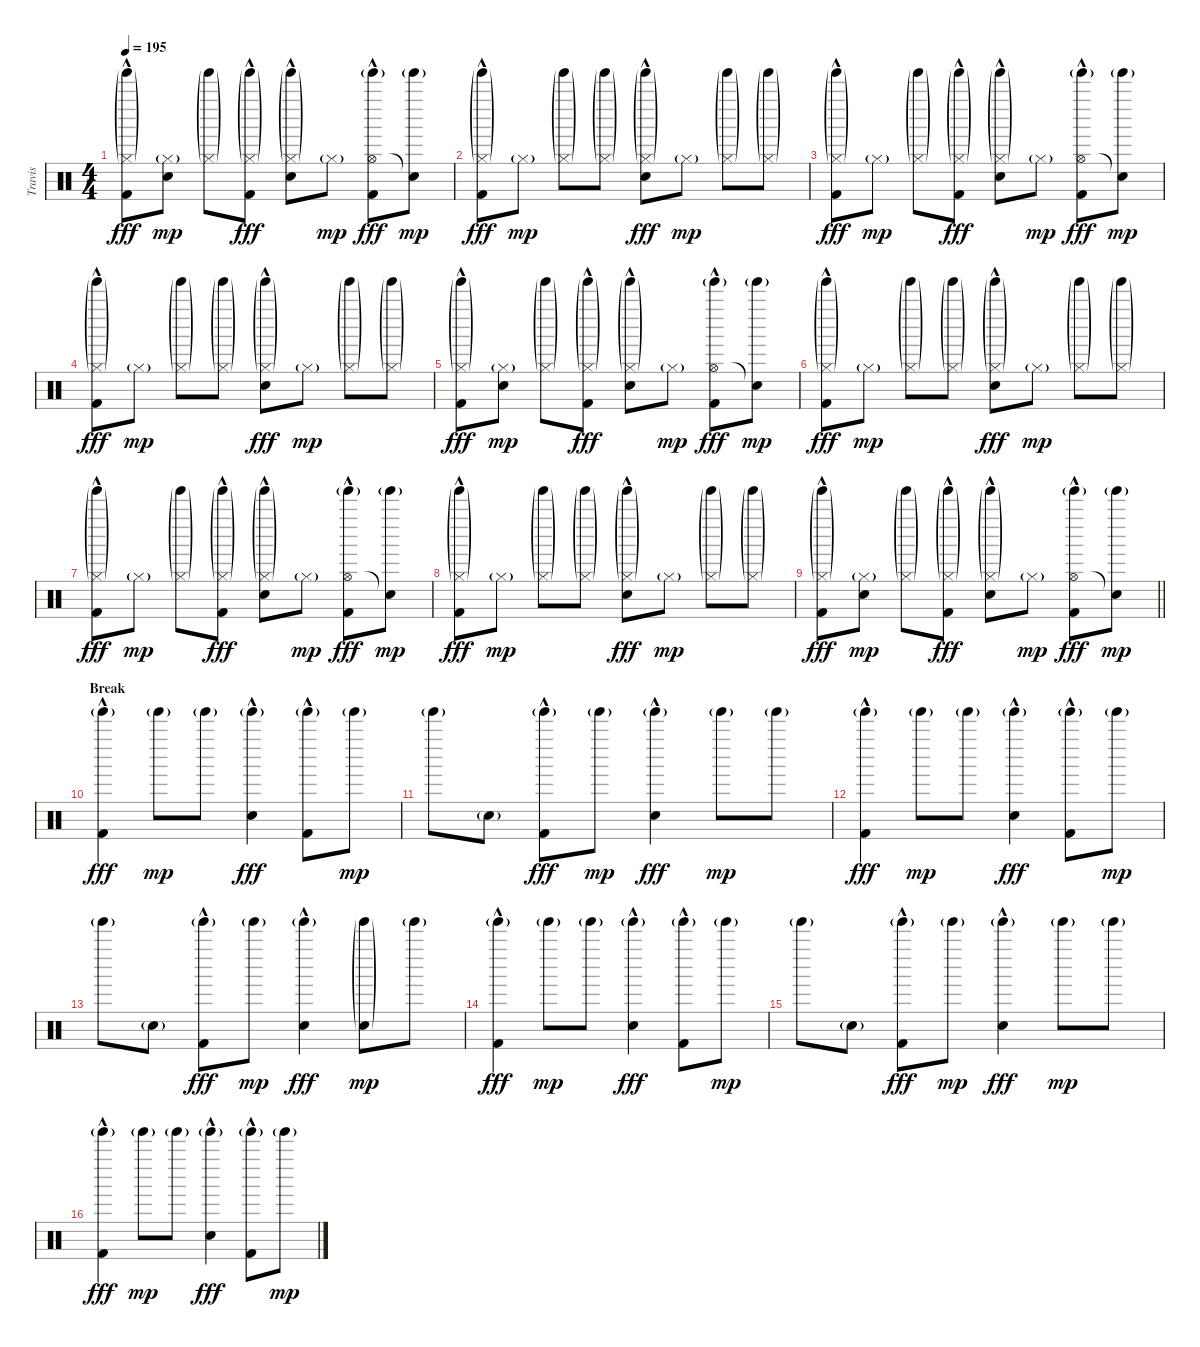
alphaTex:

\track ("Travis" "Travis") {instrument percussion}
\staff {score}
\articulation defaults
\ts (4 4)
\tempo 195
\clef neutral
\ks c
("Tinkle Bell (hit)"{g} "Hi-Hat (closed)"{g} "Kick (hit) 2"{hac}).8{dy fff} ("Hi-Hat (closed)"{g} "Electric Snare (hit)").8{dy mp} ("Tinkle Bell (hit)"{g} "Hi-Hat (closed)"{g}).8 ("Tinkle Bell (hit)"{g} "Hi-Hat (closed)"{g} "Kick (hit) 2"{hac}).8{dy fff} ("Tinkle Bell (hit)"{g} "Hi-Hat (closed)"{g} "Electric Snare (hit)"{hac}).8 "Hi-Hat (closed)"{g}.8{dy mp} ("Tinkle Bell (hit)"{g} "Hi-Hat (open)" "Kick (hit) 2"{hac}).8{dy fff} ("Tinkle Bell (hit)"{g} "Snare (hit)"{t}).8{dy mp} |
("Tinkle Bell (hit)"{g} "Hi-Hat (closed)"{g} "Kick (hit) 2"{hac}).8{dy fff} "Hi-Hat (closed)"{g}.8{dy mp} ("Tinkle Bell (hit)"{g} "Hi-Hat (closed)"{g}).8 ("Tinkle Bell (hit)"{g} "Hi-Hat (closed)"{g}).8 ("Tinkle Bell (hit)"{g} "Hi-Hat (closed)"{g} "Electric Snare (hit)"{hac}).8{dy fff} "Hi-Hat (closed)"{g}.8{dy mp} ("Tinkle Bell (hit)"{g} "Hi-Hat (closed)"{g}).8 ("Tinkle Bell (hit)"{g} "Hi-Hat (closed)"{g}).8 |
("Tinkle Bell (hit)"{g} "Hi-Hat (closed)"{g} "Kick (hit) 2"{hac}).8{dy fff} "Hi-Hat (closed)"{g}.8{dy mp} ("Tinkle Bell (hit)"{g} "Hi-Hat (closed)"{g}).8 ("Tinkle Bell (hit)"{g} "Hi-Hat (closed)"{g} "Kick (hit) 2"{hac}).8{dy fff} ("Tinkle Bell (hit)"{g} "Hi-Hat (closed)"{g} "Electric Snare (hit)"{hac}).8 "Hi-Hat (closed)"{g}.8{dy mp} ("Tinkle Bell (hit)"{g} "Hi-Hat (open)" "Kick (hit) 2"{hac}).8{dy fff} ("Tinkle Bell (hit)"{g} "Snare (hit)"{t}).8{dy mp} |
("Tinkle Bell (hit)"{g} "Hi-Hat (closed)"{g} "Kick (hit) 2"{hac}).8{dy fff} "Hi-Hat (closed)"{g}.8{dy mp} ("Tinkle Bell (hit)"{g} "Hi-Hat (closed)"{g}).8 ("Tinkle Bell (hit)"{g} "Hi-Hat (closed)"{g}).8 ("Tinkle Bell (hit)"{g} "Hi-Hat (closed)"{g} "Electric Snare (hit)"{hac}).8{dy fff} "Hi-Hat (closed)"{g}.8{dy mp} ("Tinkle Bell (hit)"{g} "Hi-Hat (closed)"{g}).8 ("Tinkle Bell (hit)"{g} "Hi-Hat (closed)"{g}).8 |
("Tinkle Bell (hit)"{g} "Hi-Hat (closed)"{g} "Kick (hit) 2"{hac}).8{dy fff} ("Hi-Hat (closed)"{g} "Electric Snare (hit)").8{dy mp} ("Tinkle Bell (hit)"{g} "Hi-Hat (closed)"{g}).8 ("Tinkle Bell (hit)"{g} "Hi-Hat (closed)"{g} "Kick (hit) 2"{hac}).8{dy fff} ("Tinkle Bell (hit)"{g} "Hi-Hat (closed)"{g} "Electric Snare (hit)"{hac}).8 "Hi-Hat (closed)"{g}.8{dy mp} ("Tinkle Bell (hit)"{g} "Hi-Hat (open)" "Kick (hit) 2"{hac}).8{dy fff} ("Tinkle Bell (hit)"{g} "Snare (hit)"{t}).8{dy mp} |
("Tinkle Bell (hit)"{g} "Hi-Hat (closed)"{g} "Kick (hit) 2"{hac}).8{dy fff} "Hi-Hat (closed)"{g}.8{dy mp} ("Tinkle Bell (hit)"{g} "Hi-Hat (closed)"{g}).8 ("Tinkle Bell (hit)"{g} "Hi-Hat (closed)"{g}).8 ("Tinkle Bell (hit)"{g} "Hi-Hat (closed)"{g} "Electric Snare (hit)"{hac}).8{dy fff} "Hi-Hat (closed)"{g}.8{dy mp} ("Tinkle Bell (hit)"{g} "Hi-Hat (closed)"{g}).8 ("Tinkle Bell (hit)"{g} "Hi-Hat (closed)"{g}).8 |
("Tinkle Bell (hit)"{g} "Hi-Hat (closed)"{g} "Kick (hit) 2"{hac}).8{dy fff} "Hi-Hat (closed)"{g}.8{dy mp} ("Tinkle Bell (hit)"{g} "Hi-Hat (closed)"{g}).8 ("Tinkle Bell (hit)"{g} "Hi-Hat (closed)"{g} "Kick (hit) 2"{hac}).8{dy fff} ("Tinkle Bell (hit)"{g} "Hi-Hat (closed)"{g} "Electric Snare (hit)"{hac}).8 "Hi-Hat (closed)"{g}.8{dy mp} ("Tinkle Bell (hit)"{g} "Hi-Hat (open)" "Kick (hit) 2"{hac}).8{dy fff} ("Tinkle Bell (hit)"{g} "Snare (hit)"{t}).8{dy mp} |
("Tinkle Bell (hit)"{g} "Hi-Hat (closed)"{g} "Kick (hit) 2"{hac}).8{dy fff} "Hi-Hat (closed)"{g}.8{dy mp} ("Tinkle Bell (hit)"{g} "Hi-Hat (closed)"{g}).8 ("Tinkle Bell (hit)"{g} "Hi-Hat (closed)"{g}).8 ("Tinkle Bell (hit)"{g} "Hi-Hat (closed)"{g} "Electric Snare (hit)"{hac}).8{dy fff} "Hi-Hat (closed)"{g}.8{dy mp} ("Tinkle Bell (hit)"{g} "Hi-Hat (closed)"{g}).8 ("Tinkle Bell (hit)"{g} "Hi-Hat (closed)"{g}).8 |
\barLineRight lightlight
("Tinkle Bell (hit)"{g} "Hi-Hat (closed)"{g} "Kick (hit) 2"{hac}).8{dy fff} ("Hi-Hat (closed)"{g} "Electric Snare (hit)").8{dy mp} ("Tinkle Bell (hit)"{g} "Hi-Hat (closed)"{g}).8 ("Tinkle Bell (hit)"{g} "Hi-Hat (closed)"{g} "Kick (hit) 2"{hac}).8{dy fff} ("Tinkle Bell (hit)"{g} "Hi-Hat (closed)"{g} "Electric Snare (hit)"{hac}).8 "Hi-Hat (closed)"{g}.8{dy mp} ("Tinkle Bell (hit)"{g} "Hi-Hat (open)" "Kick (hit) 2"{hac}).8{dy fff} ("Tinkle Bell (hit)"{g} "Snare (hit)"{t}).8{dy mp} |
\section ("" "Break")
("Tinkle Bell (hit)"{g} "Kick (hit) 2"{hac}).4{dy fff} "Tinkle Bell (hit)"{g}.8{dy mp} "Tinkle Bell (hit)"{g}.8 ("Tinkle Bell (hit)"{g} "Electric Snare (hit)"{hac}).4{dy fff} ("Tinkle Bell (hit)"{g} "Kick (hit) 2"{hac}).8 "Tinkle Bell (hit)"{g}.8{dy mp} |
"Tinkle Bell (hit)"{g}.8 "Electric Snare (hit)"{g}.8 ("Tinkle Bell (hit)"{g} "Kick (hit) 2"{hac}).8{dy fff} "Tinkle Bell (hit)"{g}.8{dy mp} ("Tinkle Bell (hit)"{g} "Electric Snare (hit)"{hac}).4{dy fff} "Tinkle Bell (hit)"{g}.8{dy mp} "Tinkle Bell (hit)"{g}.8 |
("Tinkle Bell (hit)"{g} "Kick (hit) 2"{hac}).4{dy fff} "Tinkle Bell (hit)"{g}.8{dy mp} "Tinkle Bell (hit)"{g}.8 ("Tinkle Bell (hit)"{g} "Electric Snare (hit)"{hac}).4{dy fff} ("Tinkle Bell (hit)"{g} "Kick (hit) 2"{hac}).8 "Tinkle Bell (hit)"{g}.8{dy mp} |
"Tinkle Bell (hit)"{g}.8 "Electric Snare (hit)"{g}.8 ("Tinkle Bell (hit)"{g} "Kick (hit) 2"{hac}).8{dy fff} "Tinkle Bell (hit)"{g}.8{dy mp} ("Tinkle Bell (hit)"{g} "Electric Snare (hit)"{hac}).4{dy fff} ("Tinkle Bell (hit)"{g} "Snare (hit) 2"{g}).8{dy mp} "Tinkle Bell (hit)"{g}.8 |
("Tinkle Bell (hit)"{g} "Kick (hit) 2"{hac}).4{dy fff} "Tinkle Bell (hit)"{g}.8{dy mp} "Tinkle Bell (hit)"{g}.8 ("Tinkle Bell (hit)"{g} "Electric Snare (hit)"{hac}).4{dy fff} ("Tinkle Bell (hit)"{g} "Kick (hit) 2"{hac}).8 "Tinkle Bell (hit)"{g}.8{dy mp} |
"Tinkle Bell (hit)"{g}.8 "Electric Snare (hit)"{g}.8 ("Tinkle Bell (hit)"{g} "Kick (hit) 2"{hac}).8{dy fff} "Tinkle Bell (hit)"{g}.8{dy mp} ("Tinkle Bell (hit)"{g} "Electric Snare (hit)"{hac}).4{dy fff} "Tinkle Bell (hit)"{g}.8{dy mp} "Tinkle Bell (hit)"{g}.8 |
("Tinkle Bell (hit)"{g} "Kick (hit) 2"{hac}).4{dy fff} "Tinkle Bell (hit)"{g}.8{dy mp} "Tinkle Bell (hit)"{g}.8 ("Tinkle Bell (hit)"{g} "Electric Snare (hit)"{hac}).4{dy fff} ("Tinkle Bell (hit)"{g} "Kick (hit) 2"{hac}).8 "Tinkle Bell (hit)"{g}.8{dy mp}
